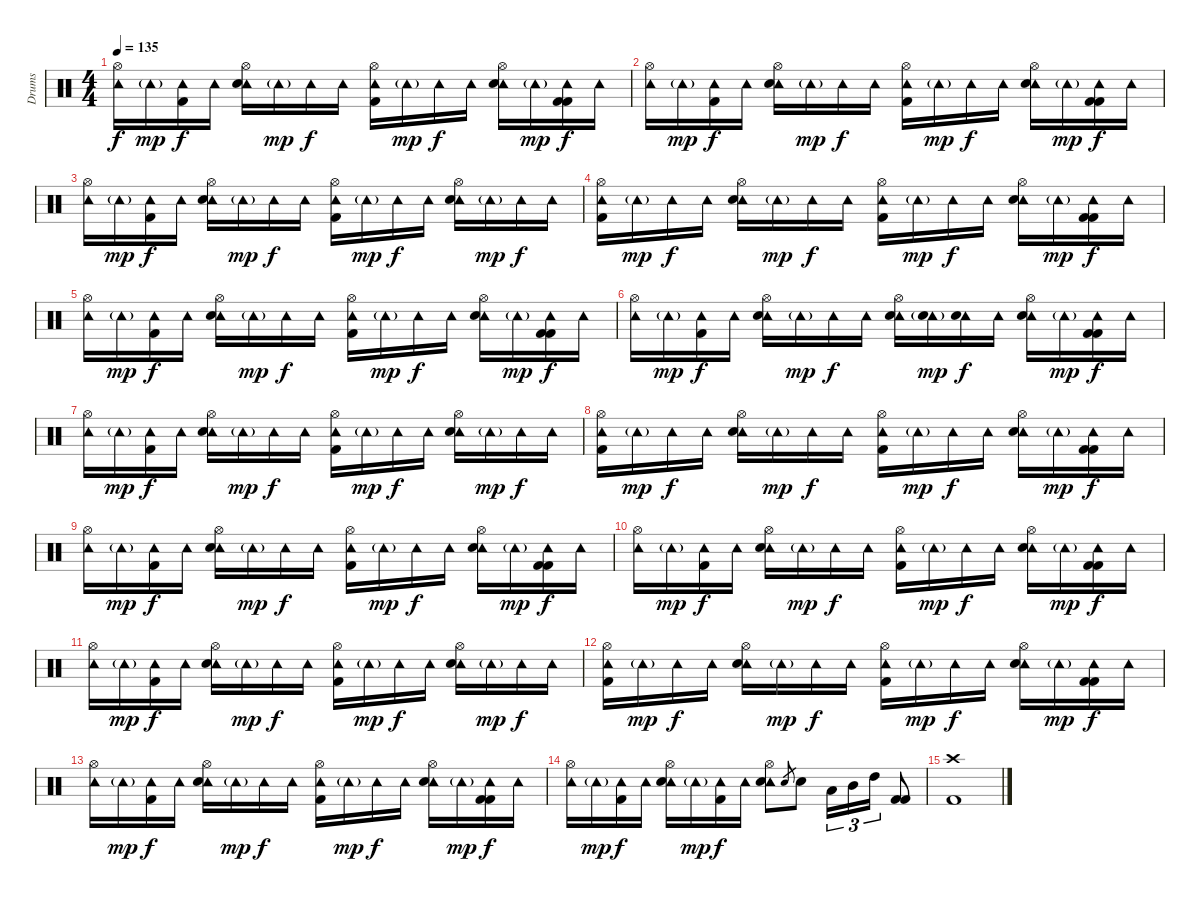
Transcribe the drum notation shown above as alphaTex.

\track ("Drums" "Drums") {instrument percussion}
\staff {score}
\articulation defaults
\ts (4 4)
\tempo 135
\clef neutral
\ks c
("Hi-Hat (open)" "Tambourine (hit)").16{dy f} "Tambourine (hit)"{g}.16{dy mp} ("Tambourine (hit)" "Kick (hit) 2").16{dy f} "Tambourine (hit)".16 ("Hi-Hat (open)" "Tambourine (hit)" "Electric Snare (hit)").16 "Tambourine (hit)"{g}.16{dy mp} "Tambourine (hit)".16{dy f} "Tambourine (hit)".16 ("Hi-Hat (open)" "Tambourine (hit)" "Kick (hit) 2").16 "Tambourine (hit)"{g}.16{dy mp} "Tambourine (hit)".16{dy f} "Tambourine (hit)".16 ("Hi-Hat (open)" "Tambourine (hit)" "Electric Snare (hit)").16 "Tambourine (hit)"{g}.16{dy mp} ("Tambourine (hit)" "Kick (hit) 2" "Kick (hit) 2").16{dy f} "Tambourine (hit)".16 |
("Hi-Hat (open)" "Tambourine (hit)").16 "Tambourine (hit)"{g}.16{dy mp} ("Tambourine (hit)" "Kick (hit) 2").16{dy f} "Tambourine (hit)".16 ("Hi-Hat (open)" "Tambourine (hit)" "Electric Snare (hit)").16 "Tambourine (hit)"{g}.16{dy mp} "Tambourine (hit)".16{dy f} "Tambourine (hit)".16 ("Hi-Hat (open)" "Tambourine (hit)" "Kick (hit) 2").16 "Tambourine (hit)"{g}.16{dy mp} "Tambourine (hit)".16{dy f} "Tambourine (hit)".16 ("Hi-Hat (open)" "Tambourine (hit)" "Electric Snare (hit)").16 "Tambourine (hit)"{g}.16{dy mp} ("Tambourine (hit)" "Kick (hit) 2" "Kick (hit) 2").16{dy f} "Tambourine (hit)".16 |
("Hi-Hat (open)" "Tambourine (hit)").16 "Tambourine (hit)"{g}.16{dy mp} ("Tambourine (hit)" "Kick (hit) 2").16{dy f} "Tambourine (hit)".16 ("Hi-Hat (open)" "Tambourine (hit)" "Electric Snare (hit)").16 "Tambourine (hit)"{g}.16{dy mp} "Tambourine (hit)".16{dy f} "Tambourine (hit)".16 ("Hi-Hat (open)" "Tambourine (hit)" "Kick (hit) 2").16 "Tambourine (hit)"{g}.16{dy mp} "Tambourine (hit)".16{dy f} "Tambourine (hit)".16 ("Hi-Hat (open)" "Tambourine (hit)" "Electric Snare (hit)").16 "Tambourine (hit)"{g}.16{dy mp} "Tambourine (hit)".16{dy f} "Tambourine (hit)".16 |
("Hi-Hat (open)" "Tambourine (hit)" "Kick (hit) 2").16 "Tambourine (hit)"{g}.16{dy mp} "Tambourine (hit)".16{dy f} "Tambourine (hit)".16 ("Hi-Hat (open)" "Tambourine (hit)" "Electric Snare (hit)").16 "Tambourine (hit)"{g}.16{dy mp} "Tambourine (hit)".16{dy f} "Tambourine (hit)".16 ("Hi-Hat (open)" "Tambourine (hit)" "Kick (hit) 2").16 "Tambourine (hit)"{g}.16{dy mp} "Tambourine (hit)".16{dy f} "Tambourine (hit)".16 ("Hi-Hat (open)" "Tambourine (hit)" "Electric Snare (hit)").16 "Tambourine (hit)"{g}.16{dy mp} ("Tambourine (hit)" "Kick (hit) 2" "Kick (hit) 2").16{dy f} "Tambourine (hit)".16 |
("Hi-Hat (open)" "Tambourine (hit)").16 "Tambourine (hit)"{g}.16{dy mp} ("Tambourine (hit)" "Kick (hit) 2").16{dy f} "Tambourine (hit)".16 ("Hi-Hat (open)" "Tambourine (hit)" "Electric Snare (hit)").16 "Tambourine (hit)"{g}.16{dy mp} "Tambourine (hit)".16{dy f} "Tambourine (hit)".16 ("Hi-Hat (open)" "Tambourine (hit)" "Kick (hit) 2").16 "Tambourine (hit)"{g}.16{dy mp} "Tambourine (hit)".16{dy f} "Tambourine (hit)".16 ("Hi-Hat (open)" "Tambourine (hit)" "Electric Snare (hit)").16 "Tambourine (hit)"{g}.16{dy mp} ("Tambourine (hit)" "Kick (hit) 2" "Kick (hit) 2").16{dy f} "Tambourine (hit)".16 |
("Hi-Hat (open)" "Tambourine (hit)").16 "Tambourine (hit)"{g}.16{dy mp} ("Tambourine (hit)" "Kick (hit) 2").16{dy f} "Tambourine (hit)".16 ("Hi-Hat (open)" "Tambourine (hit)" "Electric Snare (hit)").16 "Tambourine (hit)"{g}.16{dy mp} "Tambourine (hit)".16{dy f} "Tambourine (hit)".16 ("Hi-Hat (open)" "Tambourine (hit)" "Electric Snare (hit)").16 ("Tambourine (hit)"{g} "Electric Snare (hit)").16{dy mp} ("Tambourine (hit)" "Electric Snare (hit)").16{dy f} "Tambourine (hit)".16 ("Hi-Hat (open)" "Tambourine (hit)" "Electric Snare (hit)").16 "Tambourine (hit)"{g}.16{dy mp} ("Tambourine (hit)" "Kick (hit) 2" "Kick (hit) 2").16{dy f} "Tambourine (hit)".16 |
("Hi-Hat (open)" "Tambourine (hit)").16 "Tambourine (hit)"{g}.16{dy mp} ("Tambourine (hit)" "Kick (hit) 2").16{dy f} "Tambourine (hit)".16 ("Hi-Hat (open)" "Tambourine (hit)" "Electric Snare (hit)").16 "Tambourine (hit)"{g}.16{dy mp} "Tambourine (hit)".16{dy f} "Tambourine (hit)".16 ("Hi-Hat (open)" "Tambourine (hit)" "Kick (hit) 2").16 "Tambourine (hit)"{g}.16{dy mp} "Tambourine (hit)".16{dy f} "Tambourine (hit)".16 ("Hi-Hat (open)" "Tambourine (hit)" "Electric Snare (hit)").16 "Tambourine (hit)"{g}.16{dy mp} "Tambourine (hit)".16{dy f} "Tambourine (hit)".16 |
("Hi-Hat (open)" "Tambourine (hit)" "Kick (hit) 2").16 "Tambourine (hit)"{g}.16{dy mp} "Tambourine (hit)".16{dy f} "Tambourine (hit)".16 ("Hi-Hat (open)" "Tambourine (hit)" "Electric Snare (hit)").16 "Tambourine (hit)"{g}.16{dy mp} "Tambourine (hit)".16{dy f} "Tambourine (hit)".16 ("Hi-Hat (open)" "Tambourine (hit)" "Kick (hit) 2").16 "Tambourine (hit)"{g}.16{dy mp} "Tambourine (hit)".16{dy f} "Tambourine (hit)".16 ("Hi-Hat (open)" "Tambourine (hit)" "Electric Snare (hit)").16 "Tambourine (hit)"{g}.16{dy mp} ("Tambourine (hit)" "Kick (hit) 2" "Kick (hit) 2").16{dy f} "Tambourine (hit)".16 |
("Hi-Hat (open)" "Tambourine (hit)").16 "Tambourine (hit)"{g}.16{dy mp} ("Tambourine (hit)" "Kick (hit) 2").16{dy f} "Tambourine (hit)".16 ("Hi-Hat (open)" "Tambourine (hit)" "Electric Snare (hit)").16 "Tambourine (hit)"{g}.16{dy mp} "Tambourine (hit)".16{dy f} "Tambourine (hit)".16 ("Hi-Hat (open)" "Tambourine (hit)" "Kick (hit) 2").16 "Tambourine (hit)"{g}.16{dy mp} "Tambourine (hit)".16{dy f} "Tambourine (hit)".16 ("Hi-Hat (open)" "Tambourine (hit)" "Electric Snare (hit)").16 "Tambourine (hit)"{g}.16{dy mp} ("Tambourine (hit)" "Kick (hit) 2" "Kick (hit) 2").16{dy f} "Tambourine (hit)".16 |
("Hi-Hat (open)" "Tambourine (hit)").16 "Tambourine (hit)"{g}.16{dy mp} ("Tambourine (hit)" "Kick (hit) 2").16{dy f} "Tambourine (hit)".16 ("Hi-Hat (open)" "Tambourine (hit)" "Electric Snare (hit)").16 "Tambourine (hit)"{g}.16{dy mp} "Tambourine (hit)".16{dy f} "Tambourine (hit)".16 ("Hi-Hat (open)" "Tambourine (hit)" "Kick (hit) 2").16 "Tambourine (hit)"{g}.16{dy mp} "Tambourine (hit)".16{dy f} "Tambourine (hit)".16 ("Hi-Hat (open)" "Tambourine (hit)" "Electric Snare (hit)").16 "Tambourine (hit)"{g}.16{dy mp} ("Tambourine (hit)" "Kick (hit) 2" "Kick (hit) 2").16{dy f} "Tambourine (hit)".16 |
("Hi-Hat (open)" "Tambourine (hit)").16 "Tambourine (hit)"{g}.16{dy mp} ("Tambourine (hit)" "Kick (hit) 2").16{dy f} "Tambourine (hit)".16 ("Hi-Hat (open)" "Tambourine (hit)" "Electric Snare (hit)").16 "Tambourine (hit)"{g}.16{dy mp} "Tambourine (hit)".16{dy f} "Tambourine (hit)".16 ("Hi-Hat (open)" "Tambourine (hit)" "Kick (hit) 2").16 "Tambourine (hit)"{g}.16{dy mp} "Tambourine (hit)".16{dy f} "Tambourine (hit)".16 ("Hi-Hat (open)" "Tambourine (hit)" "Electric Snare (hit)").16 "Tambourine (hit)"{g}.16{dy mp} "Tambourine (hit)".16{dy f} "Tambourine (hit)".16 |
("Hi-Hat (open)" "Tambourine (hit)" "Kick (hit) 2").16 "Tambourine (hit)"{g}.16{dy mp} "Tambourine (hit)".16{dy f} "Tambourine (hit)".16 ("Hi-Hat (open)" "Tambourine (hit)" "Electric Snare (hit)").16 "Tambourine (hit)"{g}.16{dy mp} "Tambourine (hit)".16{dy f} "Tambourine (hit)".16 ("Hi-Hat (open)" "Tambourine (hit)" "Kick (hit) 2").16 "Tambourine (hit)"{g}.16{dy mp} "Tambourine (hit)".16{dy f} "Tambourine (hit)".16 ("Hi-Hat (open)" "Tambourine (hit)" "Electric Snare (hit)").16 "Tambourine (hit)"{g}.16{dy mp} ("Tambourine (hit)" "Kick (hit) 2" "Kick (hit) 2").16{dy f} "Tambourine (hit)".16 |
("Hi-Hat (open)" "Tambourine (hit)").16 "Tambourine (hit)"{g}.16{dy mp} ("Tambourine (hit)" "Kick (hit) 2").16{dy f} "Tambourine (hit)".16 ("Hi-Hat (open)" "Tambourine (hit)" "Electric Snare (hit)").16 "Tambourine (hit)"{g}.16{dy mp} "Tambourine (hit)".16{dy f} "Tambourine (hit)".16 ("Hi-Hat (open)" "Tambourine (hit)" "Kick (hit) 2").16 "Tambourine (hit)"{g}.16{dy mp} "Tambourine (hit)".16{dy f} "Tambourine (hit)".16 ("Hi-Hat (open)" "Tambourine (hit)" "Electric Snare (hit)").16 "Tambourine (hit)"{g}.16{dy mp} ("Tambourine (hit)" "Kick (hit) 2" "Kick (hit) 2").16{dy f} "Tambourine (hit)".16 |
("Hi-Hat (open)" "Tambourine (hit)").16 "Tambourine (hit)"{g}.16{dy mp} ("Tambourine (hit)" "Kick (hit) 2").16{dy f} "Tambourine (hit)".16 ("Hi-Hat (open)" "Tambourine (hit)" "Electric Snare (hit)").16 "Tambourine (hit)"{g}.16{dy mp} ("Tambourine (hit)" "Kick (hit) 2").16{dy f} "Tambourine (hit)".16 ("Hi-Hat (open)" "Tambourine (hit)" "Electric Snare (hit)").8 "Electric Snare (hit)".8{gr} "Electric Snare (hit)".8 "Low Tom (hit)".16{tu (3 2)} "Mid Tom (hit)".16{tu (3 2)} "High Tom (hit)".16{tu (3 2)} ("Kick (hit) 2" "Kick (hit) 2").8 |
("Crash high (hit)" "Kick (hit) 2").1
